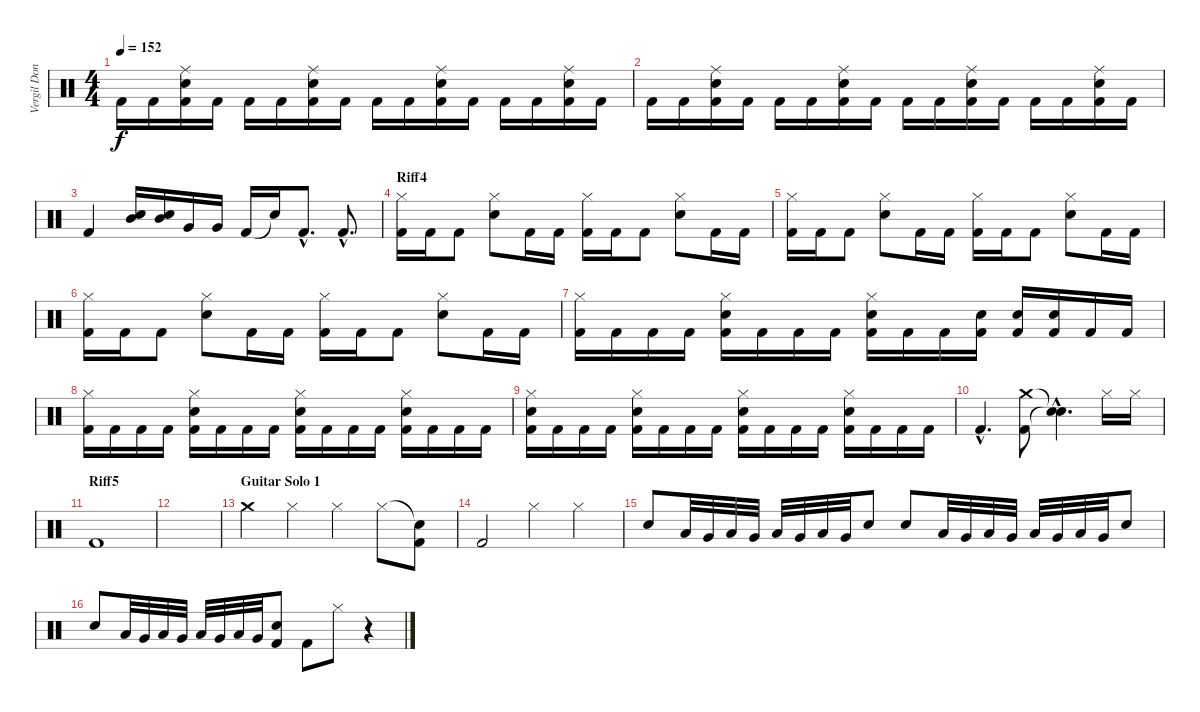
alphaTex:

\track ("Vergil Donati" "Vergil Don") {instrument percussion}
\staff {score}
\articulation defaults
\ts (4 4)
\tempo 152
\clef neutral
\ks c "Kick (hit) 2".16{dy f} "Kick (hit) 2".16
("Electric Snare (hit)" "Ride (middle)" "Kick (hit) 2").16 "Kick (hit) 2".16 "Kick (hit) 2".16 "Kick (hit) 2".16 ("Electric Snare (hit)" "Ride (middle)" "Kick (hit) 2").16 "Kick (hit) 2".16 "Kick (hit) 2".16 "Kick (hit) 2".16 ("Electric Snare (hit)" "Ride (middle)" "Kick (hit) 2").16 "Kick (hit) 2".16 "Kick (hit) 2".16 "Kick (hit) 2".16 ("Electric Snare (hit)" "Ride (middle)" "Kick (hit) 2").16 "Kick (hit) 2".16 |
"Kick (hit) 2".16 "Kick (hit) 2".16 ("Electric Snare (hit)" "Ride (middle)" "Kick (hit) 2").16 "Kick (hit) 2".16 "Kick (hit) 2".16 "Kick (hit) 2".16 ("Electric Snare (hit)" "Ride (middle)" "Kick (hit) 2").16 "Kick (hit) 2".16 "Kick (hit) 2".16 "Kick (hit) 2".16 ("Electric Snare (hit)" "Ride (middle)" "Kick (hit) 2").16 "Kick (hit) 2".16 "Kick (hit) 2".16 "Kick (hit) 2".16 ("Electric Snare (hit)" "Ride (middle)" "Kick (hit) 2").16 "Kick (hit) 2".16 |
"Kick (hit) 2".4 ("Electric Snare (hit)" "Mid Tom (hit)").16 ("Electric Snare (hit)" "Mid Tom (hit)").16 "Very Low Tom (hit)".16 "Very Low Tom (hit)".16 "Kick (hit) 2".16 "Snare (hit)"{t}.16 "Kick (hit) 2"{hac}.8{d} "Kick (hit) 2"{hac}.8{d} |
\section ("" "Riff4")
("Hi-Hat (closed)" "Kick (hit) 2").16 "Kick (hit) 2".16 "Kick (hit) 2".8 ("Electric Snare (hit)" "Hi-Hat (closed)").8 "Kick (hit) 2".16 "Kick (hit) 2".16 ("Hi-Hat (closed)" "Kick (hit) 2").16 "Kick (hit) 2".16 "Kick (hit) 2".8 ("Electric Snare (hit)" "Hi-Hat (closed)").8 "Kick (hit) 2".16 "Kick (hit) 2".16 |
("Hi-Hat (closed)" "Kick (hit) 2").16 "Kick (hit) 2".16 "Kick (hit) 2".8 ("Electric Snare (hit)" "Hi-Hat (closed)").8 "Kick (hit) 2".16 "Kick (hit) 2".16 ("Hi-Hat (closed)" "Kick (hit) 2").16 "Kick (hit) 2".16 "Kick (hit) 2".8 ("Electric Snare (hit)" "Hi-Hat (closed)").8 "Kick (hit) 2".16 "Kick (hit) 2".16 |
("Hi-Hat (closed)" "Kick (hit) 2").16 "Kick (hit) 2".16 "Kick (hit) 2".8 ("Electric Snare (hit)" "Hi-Hat (closed)").8 "Kick (hit) 2".16 "Kick (hit) 2".16 ("Hi-Hat (closed)" "Kick (hit) 2").16 "Kick (hit) 2".16 "Kick (hit) 2".8 ("Electric Snare (hit)" "Hi-Hat (closed)").8 "Kick (hit) 2".16 "Kick (hit) 2".16 |
("Hi-Hat (closed)" "Kick (hit) 2").16 "Kick (hit) 2".16 "Kick (hit) 2".16 "Kick (hit) 2".16 ("Electric Snare (hit)" "Hi-Hat (closed)" "Kick (hit) 2").16 "Kick (hit) 2".16 "Kick (hit) 2".16 "Kick (hit) 2".16 ("Electric Snare (hit)" "Hi-Hat (closed)" "Kick (hit) 2").16 "Kick (hit) 2".16 "Kick (hit) 2".16 ("Electric Snare (hit)" "Kick (hit) 2").16 ("Electric Snare (hit)" "Kick (hit) 2").16 ("Electric Snare (hit)" "Kick (hit) 2").16 "Kick (hit) 2".16 "Kick (hit) 2".16 |
("Hi-Hat (closed)" "Kick (hit) 2").16 "Kick (hit) 2".16 "Kick (hit) 2".16 "Kick (hit) 2".16 ("Electric Snare (hit)" "Hi-Hat (closed)" "Kick (hit) 2").16 "Kick (hit) 2".16 "Kick (hit) 2".16 "Kick (hit) 2".16 ("Electric Snare (hit)" "Hi-Hat (closed)" "Kick (hit) 2").16 "Kick (hit) 2".16 "Kick (hit) 2".16 "Kick (hit) 2".16 ("Electric Snare (hit)" "Hi-Hat (closed)" "Kick (hit) 2").16 "Kick (hit) 2".16 "Kick (hit) 2".16 "Kick (hit) 2".16 |
("Electric Snare (hit)" "Hi-Hat (closed)" "Kick (hit) 2").16 "Kick (hit) 2".16 "Kick (hit) 2".16 "Kick (hit) 2".16 ("Electric Snare (hit)" "Hi-Hat (closed)" "Kick (hit) 2").16 "Kick (hit) 2".16 "Kick (hit) 2".16 "Kick (hit) 2".16 ("Electric Snare (hit)" "Hi-Hat (closed)" "Kick (hit) 2").16 "Kick (hit) 2".16 "Kick (hit) 2".16 "Kick (hit) 2".16 ("Electric Snare (hit)" "Hi-Hat (closed)" "Kick (hit) 2").16 "Kick (hit) 2".16 "Kick (hit) 2".16 "Kick (hit) 2".16 |
"Kick (hit) 2"{hac}.4{d} ("Crash medium (hit)" "Kick (hit) 2").8 ("Snare (hit)"{hac t} "Snare (hit)"{hac t}).4{d} "Hi-Hat (closed)".16 "Hi-Hat (closed)".16 |
\section ("" "Riff5")
"Kick (hit) 2".1 |
|
\section ("" "Guitar Solo 1")
"Crash medium (hit)".4 "Hi-Hat (closed)".4 "Hi-Hat (closed)".4 "Hi-Hat (closed)".8 ("Snare (hit)"{t} "Kick (hit) 2").8 |
"Kick (hit) 2".2 "Hi-Hat (closed)".4 "Hi-Hat (closed)".4 |
"Electric Snare (hit)".8 "Low Floor Tom (hit)".32 "Very Low Tom (hit)".32 "Low Floor Tom (hit)".32 "Very Low Tom (hit)".32 "Low Floor Tom (hit)".32 "Very Low Tom (hit)".32 "Low Floor Tom (hit)".32 "Very Low Tom (hit)".32 "Electric Snare (hit)".8 "Electric Snare (hit)".8 "Low Floor Tom (hit)".32 "Very Low Tom (hit)".32 "Low Floor Tom (hit)".32 "Very Low Tom (hit)".32 "Low Floor Tom (hit)".32 "Very Low Tom (hit)".32 "Low Floor Tom (hit)".32 "Very Low Tom (hit)".32 "Electric Snare (hit)".8 |
"Electric Snare (hit)".8 "Low Floor Tom (hit)".32 "Very Low Tom (hit)".32 "Low Floor Tom (hit)".32 "Very Low Tom (hit)".32 "Low Floor Tom (hit)".32 "Very Low Tom (hit)".32 "Low Floor Tom (hit)".32 "Very Low Tom (hit)".32 ("Electric Snare (hit)" "Kick (hit) 2").8 "Kick (hit) 2".8 "Hi-Hat (closed)".8 r.4
